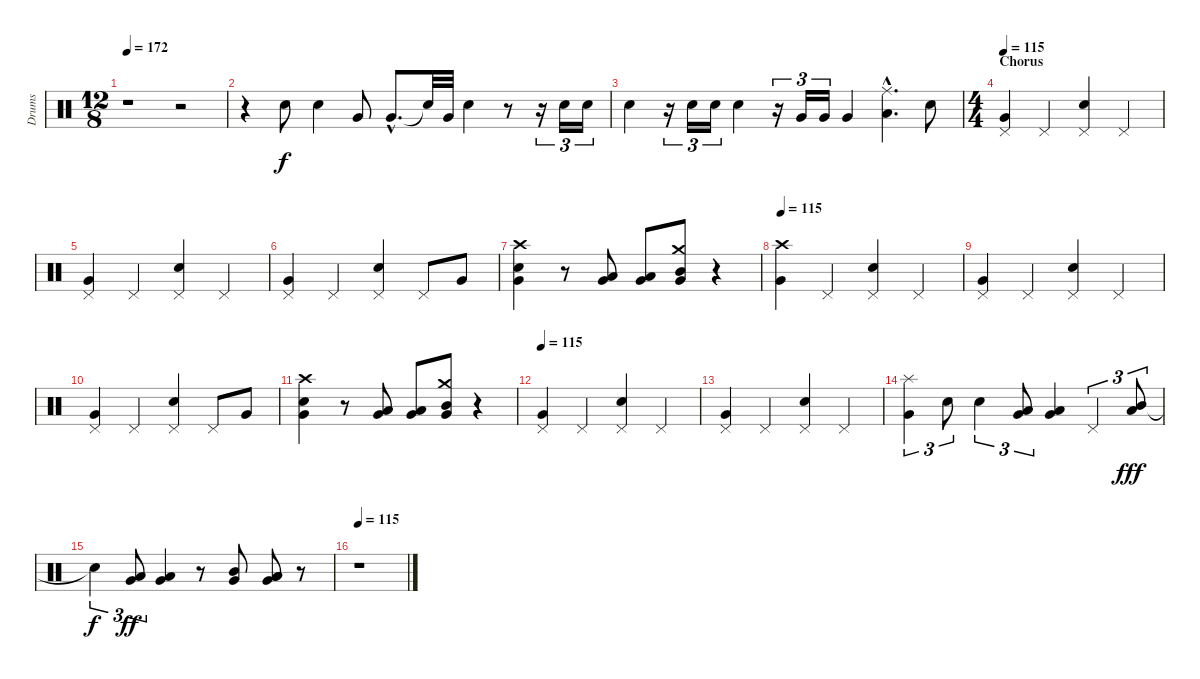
\track ("Drums" "Drums") {instrument percussion}
\staff {score}
\articulation defaults
\ts (12 8)
\tempo 172
\clef neutral
\ks c
r.1{dy mf} r.2 |
r.4{balance 8} "Electric Snare (hit)".8{dy f} "Electric Snare (hit)".4 "Very Low Tom (hit)".8 "Very Low Tom (hit)"{hac}.8{d} "Snare (hit)"{t}.32 "Very Low Tom (hit)".32 "Electric Snare (hit)".4 r.8 r.16{tu (3 2)} "Electric Snare (hit)".16{tu (3 2)} "Electric Snare (hit)".16{tu (3 2)} |
"Electric Snare (hit)".4 r.16{tu (3 2)} "Snare (hit) 2".16{tu (3 2)} "Snare (hit) 2".16{tu (3 2)} "Snare (hit) 2".4 r.16{tu (3 2)} "Very Low Tom (hit)".16{tu (3 2)} "Very Low Tom (hit)".16{tu (3 2)} "Very Low Tom (hit)".4 ("Ride (middle)"{hac} "Low Floor Tom (hit)"{hac}).4{d} "Electric Snare (hit)".8 |
\ts (4 4)
\section ("" "Chorus")
\tempo 115
("Pedal Hi-Hat (hit)" "Very Low Tom (hit)").4 "Pedal Hi-Hat (hit)".4 ("Pedal Hi-Hat (hit)" "Electric Snare (hit)").4 "Pedal Hi-Hat (hit)".4 |
("Pedal Hi-Hat (hit)" "Very Low Tom (hit)").4 "Pedal Hi-Hat (hit)".4 ("Pedal Hi-Hat (hit)" "Electric Snare (hit)").4 "Pedal Hi-Hat (hit)".4 |
("Pedal Hi-Hat (hit)" "Very Low Tom (hit)").4 "Pedal Hi-Hat (hit)".4 ("Pedal Hi-Hat (hit)" "Electric Snare (hit)").4 "Pedal Hi-Hat (hit)".8 "Very Low Tom (hit)".8 |
("Crash high (hit)" "Electric Snare (hit)" "Very Low Tom (hit)").4 r.8 ("Low Tom (hit)" "Very Low Tom (hit)").8 ("Low Tom (hit)" "Very Low Tom (hit)").8 ("Crash medium (hit)" "Mid Tom (hit)" "Very Low Tom (hit)").8 r.4 |
\tempo 115
("Crash high (hit)" "Very Low Tom (hit)").4 "Pedal Hi-Hat (hit)".4 ("Pedal Hi-Hat (hit)" "Electric Snare (hit)").4 "Pedal Hi-Hat (hit)".4 |
("Pedal Hi-Hat (hit)" "Very Low Tom (hit)").4 "Pedal Hi-Hat (hit)".4 ("Pedal Hi-Hat (hit)" "Electric Snare (hit)").4 "Pedal Hi-Hat (hit)".4 |
("Pedal Hi-Hat (hit)" "Very Low Tom (hit)").4 "Pedal Hi-Hat (hit)".4 ("Pedal Hi-Hat (hit)" "Electric Snare (hit)").4 "Pedal Hi-Hat (hit)".8 "Very Low Tom (hit)".8 |
("Crash high (hit)" "Electric Snare (hit)" "Very Low Tom (hit)").4 r.8 ("Low Tom (hit)" "Very Low Tom (hit)").8 ("Low Tom (hit)" "Very Low Tom (hit)").8 ("Crash medium (hit)" "Mid Tom (hit)" "Very Low Tom (hit)").8 r.4 |
\tempo 115
("Pedal Hi-Hat (hit)" "Very Low Tom (hit)").4 "Pedal Hi-Hat (hit)".4 ("Pedal Hi-Hat (hit)" "Electric Snare (hit)").4 "Pedal Hi-Hat (hit)".4 |
("Pedal Hi-Hat (hit)" "Very Low Tom (hit)").4 "Pedal Hi-Hat (hit)".4 ("Pedal Hi-Hat (hit)" "Electric Snare (hit)").4 "Pedal Hi-Hat (hit)".4 |
("Splash (hit)" "Very Low Tom (hit)").4{tu (3 2)} "Electric Snare (hit)".8{tu (3 2)} "Electric Snare (hit)".4{tu (3 2)} ("Low Tom (hit)" "Very Low Tom (hit)").8{tu (3 2)} ("Low Tom (hit)" "Very Low Tom (hit)").4 "Pedal Hi-Hat (hit)".4{tu (3 2)} ("Mid Tom (hit)" "Low Floor Tom (hit)").8{tu (3 2) dy fff} |
"Snare (hit)"{t}.4{tu (3 2) dy f} ("Low Tom (hit)" "Very Low Tom (hit)").8{tu (3 2) dy ff} ("Low Tom (hit)" "Very Low Tom (hit)").4 r.8 ("Mid Tom (hit)" "Very Low Tom (hit)").8 ("Low Tom (hit)" "Low Floor Tom (hit)" "Very Low Tom (hit)").8 r.8 |
\tempo 115
r.1
